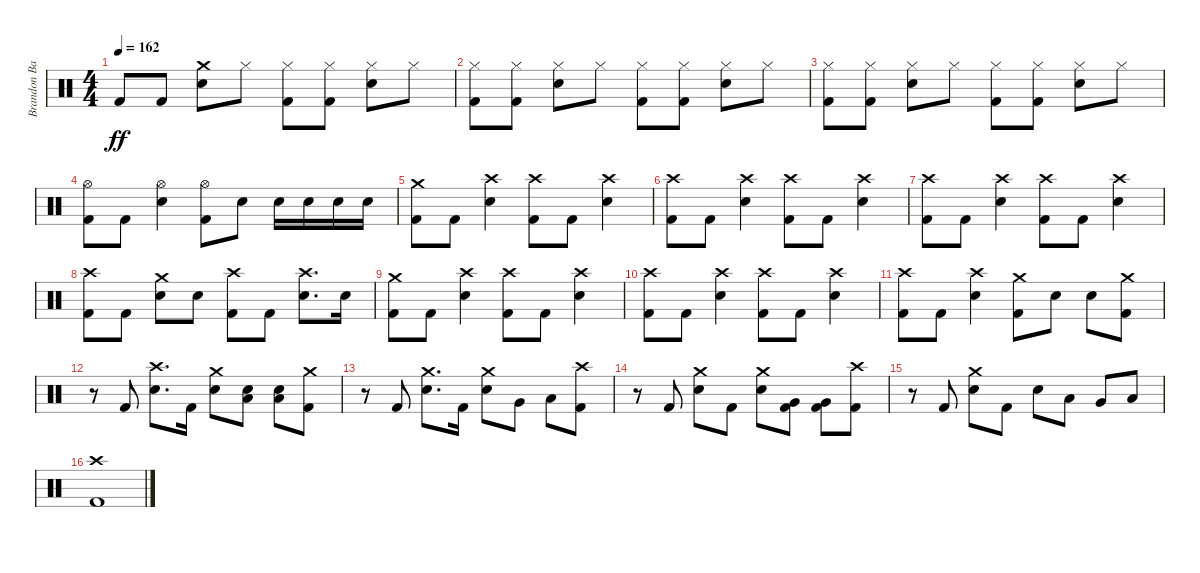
\track ("Brandon Barnes - Drums" "Brandon Ba") {instrument percussion}
\staff {score}
\articulation defaults
\ts (4 4)
\tempo 162
\clef neutral
\ks c "Kick (hit) 2".8{dy ff} "Kick (hit) 2".8
("Crash medium (hit)" "Electric Snare (hit)").8 "Hi-Hat (closed)".8 ("Hi-Hat (closed)" "Kick (hit) 2").8 ("Hi-Hat (closed)" "Kick (hit) 2").8 ("Hi-Hat (closed)" "Electric Snare (hit)").8 "Hi-Hat (closed)".8 |
("Hi-Hat (closed)" "Kick (hit) 2").8 ("Hi-Hat (closed)" "Kick (hit) 2").8 ("Hi-Hat (closed)" "Electric Snare (hit)").8 "Hi-Hat (closed)".8 ("Hi-Hat (closed)" "Kick (hit) 2").8 ("Hi-Hat (closed)" "Kick (hit) 2").8 ("Hi-Hat (closed)" "Electric Snare (hit)").8 "Hi-Hat (closed)".8 |
("Hi-Hat (closed)" "Kick (hit) 2").8 ("Hi-Hat (closed)" "Kick (hit) 2").8 ("Hi-Hat (closed)" "Electric Snare (hit)").8 "Hi-Hat (closed)".8 ("Hi-Hat (closed)" "Kick (hit) 2").8 ("Hi-Hat (closed)" "Kick (hit) 2").8 ("Hi-Hat (closed)" "Electric Snare (hit)").8 "Hi-Hat (closed)".8 |
("Hi-Hat (open)" "Kick (hit) 2").8 "Kick (hit) 2".8 ("Hi-Hat (open)" "Electric Snare (hit)").4 ("Hi-Hat (open)" "Kick (hit) 2").8 "Electric Snare (hit)".8 "Electric Snare (hit)".16 "Electric Snare (hit)".16 "Electric Snare (hit)".16 "Electric Snare (hit)".16 |
("Crash medium (hit)" "Kick (hit) 2").8 "Kick (hit) 2".8 ("Crash high (hit)" "Electric Snare (hit)").4 ("Crash high (hit)" "Kick (hit) 2").8 "Kick (hit) 2".8 ("Crash high (hit)" "Electric Snare (hit)").4 |
("Crash high (hit)" "Kick (hit) 2").8 "Kick (hit) 2".8 ("Crash high (hit)" "Electric Snare (hit)").4 ("Crash high (hit)" "Kick (hit) 2").8 "Kick (hit) 2".8 ("Crash high (hit)" "Electric Snare (hit)").4 |
("Crash high (hit)" "Kick (hit) 2").8 "Kick (hit) 2".8 ("Crash high (hit)" "Electric Snare (hit)").4 ("Crash high (hit)" "Kick (hit) 2").8 "Kick (hit) 2".8 ("Crash high (hit)" "Electric Snare (hit)").4 |
("Crash high (hit)" "Kick (hit) 2").8 "Kick (hit) 2".8 ("Crash medium (hit)" "Electric Snare (hit)").8 "Electric Snare (hit)".8 ("Crash high (hit)" "Kick (hit) 2").8 "Kick (hit) 2".8 ("Crash high (hit)" "Electric Snare (hit)").8{d} "Electric Snare (hit)".16 |
("Crash medium (hit)" "Kick (hit) 2").8 "Kick (hit) 2".8 ("Crash high (hit)" "Electric Snare (hit)").4 ("Crash high (hit)" "Kick (hit) 2").8 "Kick (hit) 2".8 ("Crash high (hit)" "Electric Snare (hit)").4 |
("Crash high (hit)" "Kick (hit) 2").8 "Kick (hit) 2".8 ("Crash high (hit)" "Electric Snare (hit)").4 ("Crash high (hit)" "Kick (hit) 2").8 "Kick (hit) 2".8 ("Crash high (hit)" "Electric Snare (hit)").4 |
("Crash high (hit)" "Kick (hit) 2").8 "Kick (hit) 2".8 ("Crash high (hit)" "Electric Snare (hit)").4 ("Crash medium (hit)" "Kick (hit) 2").8 "Electric Snare (hit)".8 "Electric Snare (hit)".8 ("Crash medium (hit)" "Kick (hit) 2").8 |
r.8 "Kick (hit) 2".8 ("Crash high (hit)" "Electric Snare (hit)").8{d} "Kick (hit) 2".16 ("Crash medium (hit)" "Electric Snare (hit)").8 ("Low Floor Tom (hit)" "Electric Snare (hit)").8 ("Low Floor Tom (hit)" "Electric Snare (hit)").8 ("Crash medium (hit)" "Kick (hit) 2").8 |
r.8 "Kick (hit) 2".8 ("Crash medium (hit)" "Electric Snare (hit)").8{d} "Kick (hit) 2".16 ("Crash medium (hit)" "Electric Snare (hit)").8 "Very Low Tom (hit)".8 "Low Floor Tom (hit)".8 ("Crash high (hit)" "Kick (hit) 2").8 |
r.8 "Kick (hit) 2".8 ("Crash medium (hit)" "Electric Snare (hit)").8 "Kick (hit) 2".8 ("Crash medium (hit)" "Electric Snare (hit)").8 ("Very Low Tom (hit)" "Kick (hit) 2").8 ("Very Low Tom (hit)" "Kick (hit) 2").8 ("Crash high (hit)" "Kick (hit) 2").8 |
r.8 "Kick (hit) 2".8 ("Crash medium (hit)" "Electric Snare (hit)").8 "Kick (hit) 2".8 "Electric Snare (hit)".8 "Low Tom (hit)".8 "Very Low Tom (hit)".8 "Low Floor Tom (hit)".8 |
("Crash high (hit)" "Kick (hit) 2").1
